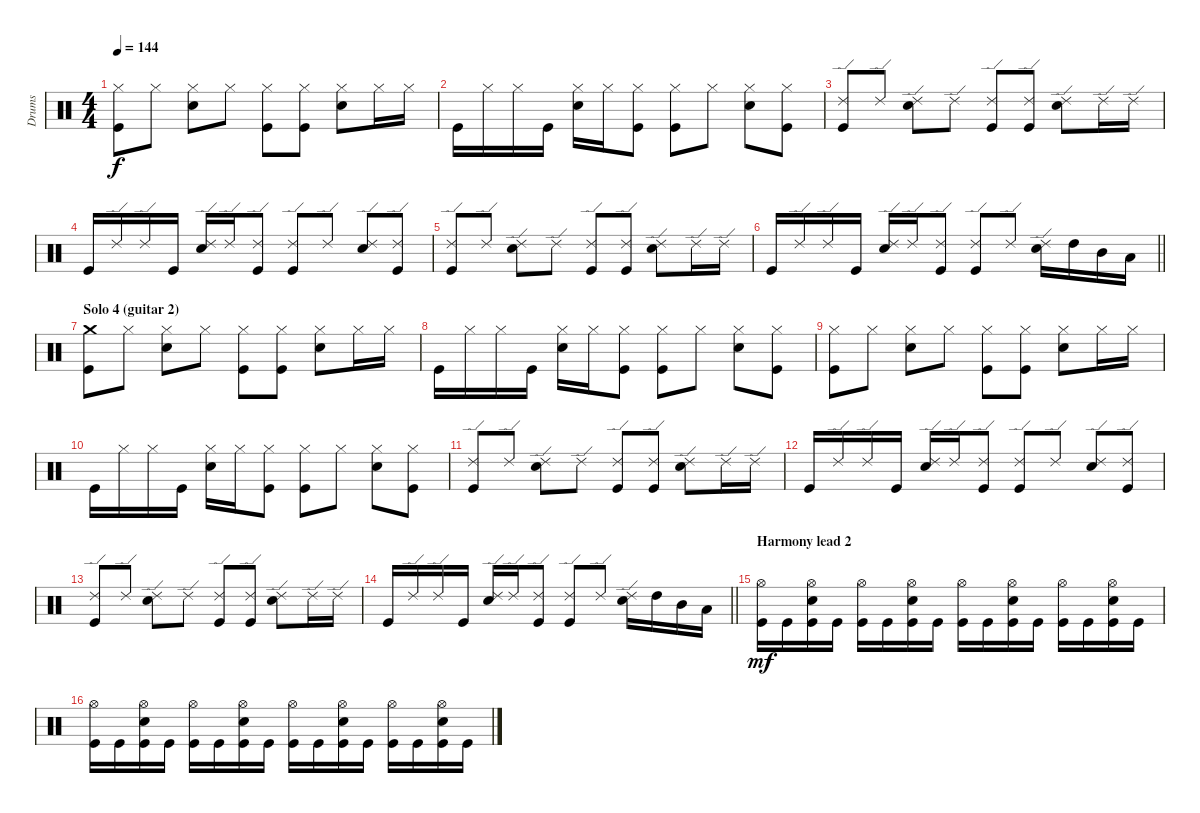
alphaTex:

\track ("Drums" "Drums") {instrument percussion}
\staff {score}
\articulation defaults
\ts (4 4)
\tempo 144
\clef neutral
\ks c
("Hi-Hat (closed)" "Kick (hit)").8{dy f} "Hi-Hat (closed)".8 ("Hi-Hat (closed)" "Snare (hit) 2").8 "Hi-Hat (closed)".8 ("Hi-Hat (closed)" "Kick (hit)").8 ("Hi-Hat (closed)" "Kick (hit)").8 ("Hi-Hat (closed)" "Snare (hit) 2").8 "Hi-Hat (closed)".16 "Hi-Hat (closed)".16 |
"Kick (hit)".16 "Hi-Hat (closed)".16 "Hi-Hat (closed)".16 "Kick (hit)".16 ("Hi-Hat (closed)" "Snare (hit) 2").16 "Hi-Hat (closed)".16 ("Hi-Hat (closed)" "Kick (hit)").8 ("Hi-Hat (closed)" "Kick (hit)").8 "Hi-Hat (closed)".8 ("Hi-Hat (closed)" "Snare (hit) 2").8 ("Hi-Hat (closed)" "Kick (hit)").8 |
("Ride (edge) 2" "Kick (hit)").8 "Ride (edge) 2".8 ("Ride (edge) 2" "Snare (hit) 2").8 "Ride (edge) 2".8 ("Ride (edge) 2" "Kick (hit)").8 ("Ride (edge) 2" "Kick (hit)").8 ("Ride (edge) 2" "Snare (hit) 2").8 "Ride (edge) 2".16 "Ride (edge) 2".16 |
"Kick (hit)".16 "Ride (edge) 2".16 "Ride (edge) 2".16 "Kick (hit)".16 ("Ride (edge) 2" "Snare (hit) 2").16 "Ride (edge) 2".16 ("Ride (edge) 2" "Kick (hit)").8 ("Ride (edge) 2" "Kick (hit)").8 "Ride (edge) 2".8 ("Ride (edge) 2" "Snare (hit) 2").8 ("Ride (edge) 2" "Kick (hit)").8 |
("Ride (edge) 2" "Kick (hit)").8 "Ride (edge) 2".8 ("Ride (edge) 2" "Snare (hit) 2").8 "Ride (edge) 2".8 ("Ride (edge) 2" "Kick (hit)").8 ("Ride (edge) 2" "Kick (hit)").8 ("Ride (edge) 2" "Snare (hit) 2").8 "Ride (edge) 2".16 "Ride (edge) 2".16 |
\barLineRight lightlight "Kick (hit)".16 "Ride (edge) 2".16 "Ride (edge) 2".16 "Kick (hit)".16
("Ride (edge) 2" "Snare (hit) 2").16 "Ride (edge) 2".16 ("Ride (edge) 2" "Kick (hit)").8 ("Ride (edge) 2" "Kick (hit)").8 "Ride (edge) 2".8 ("Ride (edge) 2" "Snare (hit) 2").16 "High Tom (hit)".16 "Mid Tom (hit)".16 "Low Tom (hit)".16 |
\section ("" "Solo 4 (guitar 2)")
("Crash medium (hit)" "Kick (hit)").8 "Hi-Hat (closed)".8 ("Hi-Hat (closed)" "Snare (hit) 2").8 "Hi-Hat (closed)".8 ("Hi-Hat (closed)" "Kick (hit)").8 ("Hi-Hat (closed)" "Kick (hit)").8 ("Hi-Hat (closed)" "Snare (hit) 2").8 "Hi-Hat (closed)".16 "Hi-Hat (closed)".16 |
"Kick (hit)".16 "Hi-Hat (closed)".16 "Hi-Hat (closed)".16 "Kick (hit)".16 ("Hi-Hat (closed)" "Snare (hit) 2").16 "Hi-Hat (closed)".16 ("Hi-Hat (closed)" "Kick (hit)").8 ("Hi-Hat (closed)" "Kick (hit)").8 "Hi-Hat (closed)".8 ("Hi-Hat (closed)" "Snare (hit) 2").8 ("Hi-Hat (closed)" "Kick (hit)").8 |
("Hi-Hat (closed)" "Kick (hit)").8 "Hi-Hat (closed)".8 ("Hi-Hat (closed)" "Snare (hit) 2").8 "Hi-Hat (closed)".8 ("Hi-Hat (closed)" "Kick (hit)").8 ("Hi-Hat (closed)" "Kick (hit)").8 ("Hi-Hat (closed)" "Snare (hit) 2").8 "Hi-Hat (closed)".16 "Hi-Hat (closed)".16 |
"Kick (hit)".16 "Hi-Hat (closed)".16 "Hi-Hat (closed)".16 "Kick (hit)".16 ("Hi-Hat (closed)" "Snare (hit) 2").16 "Hi-Hat (closed)".16 ("Hi-Hat (closed)" "Kick (hit)").8 ("Hi-Hat (closed)" "Kick (hit)").8 "Hi-Hat (closed)".8 ("Hi-Hat (closed)" "Snare (hit) 2").8 ("Hi-Hat (closed)" "Kick (hit)").8 |
("Ride (edge) 2" "Kick (hit)").8 "Ride (edge) 2".8 ("Ride (edge) 2" "Snare (hit) 2").8 "Ride (edge) 2".8 ("Ride (edge) 2" "Kick (hit)").8 ("Ride (edge) 2" "Kick (hit)").8 ("Ride (edge) 2" "Snare (hit) 2").8 "Ride (edge) 2".16 "Ride (edge) 2".16 |
"Kick (hit)".16 "Ride (edge) 2".16 "Ride (edge) 2".16 "Kick (hit)".16 ("Ride (edge) 2" "Snare (hit) 2").16 "Ride (edge) 2".16 ("Ride (edge) 2" "Kick (hit)").8 ("Ride (edge) 2" "Kick (hit)").8 "Ride (edge) 2".8 ("Ride (edge) 2" "Snare (hit) 2").8 ("Ride (edge) 2" "Kick (hit)").8 |
("Ride (edge) 2" "Kick (hit)").8 "Ride (edge) 2".8 ("Ride (edge) 2" "Snare (hit) 2").8 "Ride (edge) 2".8 ("Ride (edge) 2" "Kick (hit)").8 ("Ride (edge) 2" "Kick (hit)").8 ("Ride (edge) 2" "Snare (hit) 2").8 "Ride (edge) 2".16 "Ride (edge) 2".16 |
\barLineRight lightlight "Kick (hit)".16 "Ride (edge) 2".16 "Ride (edge) 2".16 "Kick (hit)".16
("Ride (edge) 2" "Snare (hit) 2").16 "Ride (edge) 2".16 ("Ride (edge) 2" "Kick (hit)").8 ("Ride (edge) 2" "Kick (hit)").8 "Ride (edge) 2".8 ("Ride (edge) 2" "Snare (hit) 2").16 "High Tom (hit)".16 "Mid Tom (hit)".16 "Low Tom (hit)".16 |
\section ("" "Harmony lead 2")
("Hi-Hat (open)" "Kick (hit)").16{dy mf} "Kick (hit)".16 ("Hi-Hat (open)" "Snare (hit) 2" "Kick (hit)").16 "Kick (hit)".16 ("Hi-Hat (open)" "Kick (hit)").16 "Kick (hit)".16 ("Hi-Hat (open)" "Snare (hit) 2" "Kick (hit)").16 "Kick (hit)".16 ("Hi-Hat (open)" "Kick (hit)").16 "Kick (hit)".16 ("Hi-Hat (open)" "Snare (hit) 2" "Kick (hit)").16 "Kick (hit)".16 ("Hi-Hat (open)" "Kick (hit)").16 "Kick (hit)".16 ("Hi-Hat (open)" "Snare (hit) 2" "Kick (hit)").16 "Kick (hit)".16 |
("Hi-Hat (open)" "Kick (hit)").16 "Kick (hit)".16 ("Hi-Hat (open)" "Snare (hit) 2" "Kick (hit)").16 "Kick (hit)".16 ("Hi-Hat (open)" "Kick (hit)").16 "Kick (hit)".16 ("Hi-Hat (open)" "Snare (hit) 2" "Kick (hit)").16 "Kick (hit)".16 ("Hi-Hat (open)" "Kick (hit)").16 "Kick (hit)".16 ("Hi-Hat (open)" "Snare (hit) 2" "Kick (hit)").16 "Kick (hit)".16 ("Hi-Hat (open)" "Kick (hit)").16 "Kick (hit)".16 ("Hi-Hat (open)" "Snare (hit) 2" "Kick (hit)").16 "Kick (hit)".16
